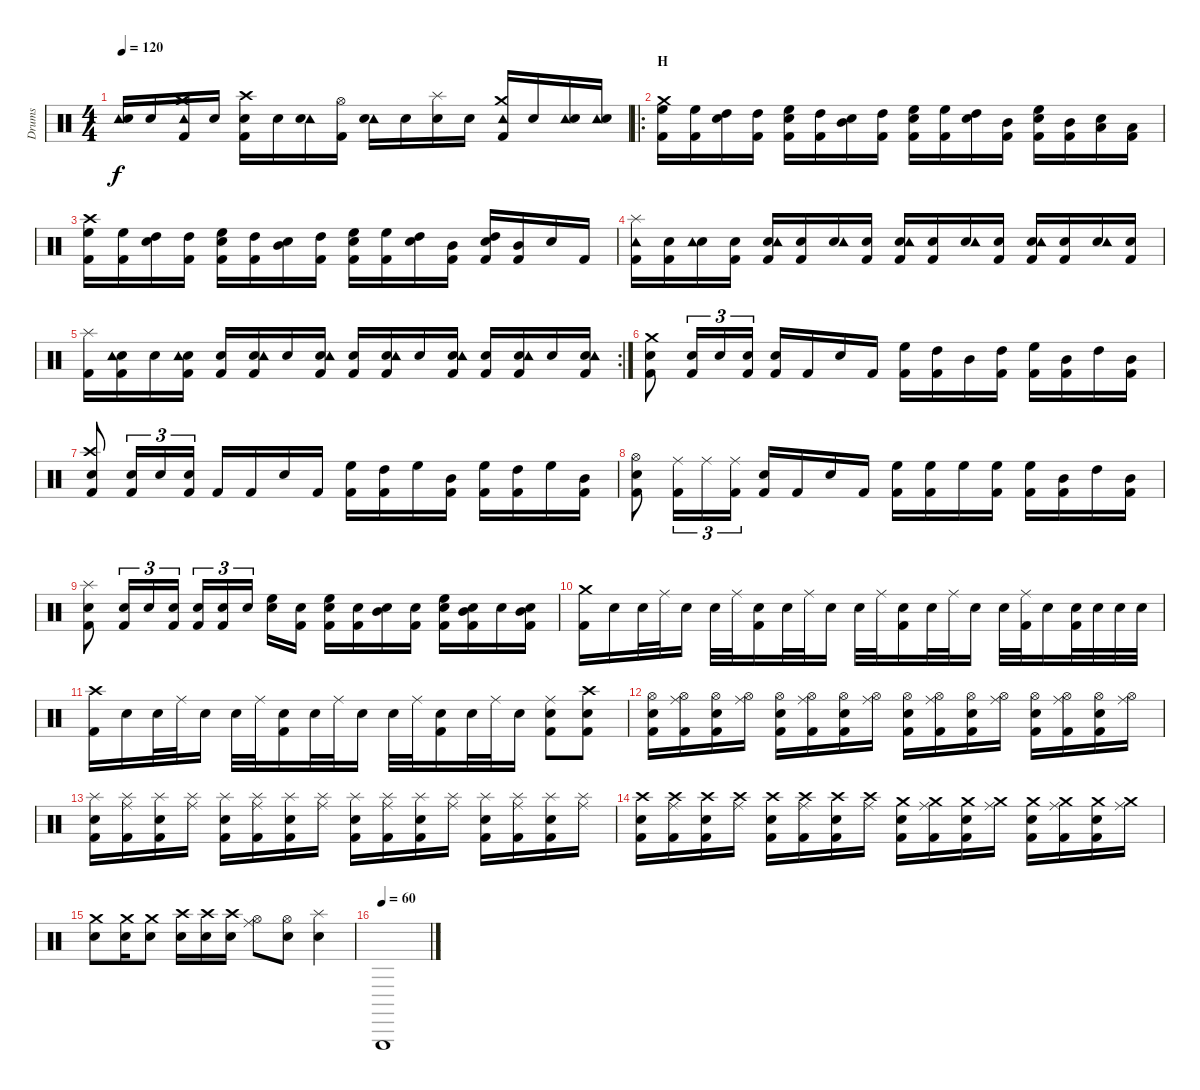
\track ("Drums" "Drums") {instrument percussion}
\staff {score}
\articulation defaults
\ts (4 4)
\tempo 120
\clef neutral
\ks c
("Tambourine (hit)" "Snare (hit) 2").16{dy f} "Snare (hit) 2".16 ("Crash medium (hit)" "Tambourine (hit)" "Kick (hit) 2").16 "Snare (hit) 2".16 ("Crash high (hit)" "Electric Snare (hit)" "Kick (hit) 2").16 "Snare (hit) 2".16 ("Tambourine (hit)" "Electric Snare (hit)").16 ("Hi-Hat (open)" "Kick (hit) 2").16 ("Tambourine (hit)" "Snare (hit) 2").16 "Electric Snare (hit)".16 ("Splash (hit)" "Snare (hit) 2").16 "Electric Snare (hit)".16 ("Crash medium (hit)" "Tambourine (hit)" "Kick (hit) 2").16 "Electric Snare (hit)".16 ("Tambourine (hit)" "Snare (hit) 2").16 ("Tambourine (hit)" "Electric Snare (hit)").16 |
\ro
\section ("" "H")
("Crash medium (hit)" "High Floor Tom (hit)" "Kick (hit) 2").16 ("High Floor Tom (hit)" "Kick (hit) 2").16 ("Snare (hit) 2" "High Tom (hit)").16 ("High Tom (hit)" "Kick (hit) 2").16 ("Snare (hit) 2" "High Floor Tom (hit)" "Kick (hit) 2").16 ("High Tom (hit)" "Kick (hit) 2").16 ("Snare (hit) 2" "Mid Tom (hit)").16 ("High Tom (hit)" "Kick (hit) 2").16 ("Snare (hit) 2" "High Floor Tom (hit)" "Kick (hit) 2").16 ("High Floor Tom (hit)" "Kick (hit) 2").16 ("Snare (hit) 2" "High Tom (hit)").16 ("Mid Tom (hit)" "Kick (hit) 2").16 ("Snare (hit) 2" "High Floor Tom (hit)" "Kick (hit) 2").16 ("Mid Tom (hit)" "Kick (hit) 2").16 ("Snare (hit) 2" "Low Tom (hit)").16 ("Low Floor Tom (hit)" "Kick (hit) 2").16 |
("Crash high (hit)" "High Floor Tom (hit)" "Kick (hit) 2").16 ("High Floor Tom (hit)" "Kick (hit) 2").16 ("Electric Snare (hit)" "High Tom (hit)").16 ("High Tom (hit)" "Kick (hit) 2").16 ("Electric Snare (hit)" "High Floor Tom (hit)" "Kick (hit) 2").16 ("High Tom (hit)" "Kick (hit) 2").16 ("Electric Snare (hit)" "Mid Tom (hit)").16 ("High Tom (hit)" "Kick (hit) 2").16 ("Electric Snare (hit)" "High Floor Tom (hit)" "Kick (hit) 2").16 ("High Floor Tom (hit)" "Kick (hit) 2").16 ("Electric Snare (hit)" "High Tom (hit)").16 ("Mid Tom (hit)" "Kick (hit) 2").16 ("Electric Snare (hit)" "High Tom (hit)" "Kick (hit) 2").16 ("Mid Tom (hit)" "Kick (hit) 2").16 "Electric Snare (hit)".16 "Kick (hit) 2".16 |
("Splash (hit)" "Tambourine (hit)" "Kick (hit) 2").16 ("Snare (hit) 2" "Kick (hit) 2").16 ("Snare (hit) 2" "Tambourine (hit)").16 ("Snare (hit) 2" "Kick (hit) 2").16 ("Snare (hit) 2" "Tambourine (hit)" "Kick (hit) 2").16 ("Snare (hit) 2" "Kick (hit) 2").16 ("Snare (hit) 2" "Tambourine (hit)").16 ("Snare (hit) 2" "Kick (hit) 2").16 ("Snare (hit) 2" "Tambourine (hit)" "Kick (hit) 2").16 ("Snare (hit) 2" "Kick (hit) 2").16 ("Snare (hit) 2" "Tambourine (hit)").16 ("Snare (hit) 2" "Kick (hit) 2").16 ("Snare (hit) 2" "Tambourine (hit)" "Kick (hit) 2").16 ("Snare (hit) 2" "Kick (hit) 2").16 ("Snare (hit) 2" "Tambourine (hit)").16 ("Snare (hit) 2" "Kick (hit) 2").16 |
\rc 2
("Splash (hit)" "Kick (hit) 2").16 ("Electric Snare (hit)" "Tambourine (hit)" "Kick (hit) 2").16 "Electric Snare (hit)".16 ("Electric Snare (hit)" "Tambourine (hit)" "Kick (hit) 2").16 ("Electric Snare (hit)" "Kick (hit) 2").16 ("Electric Snare (hit)" "Tambourine (hit)" "Kick (hit) 2").16 "Electric Snare (hit)".16 ("Electric Snare (hit)" "Tambourine (hit)" "Kick (hit) 2").16 ("Snare (hit) 2" "Kick (hit) 2").16 ("Snare (hit) 2" "Tambourine (hit)" "Kick (hit) 2").16 "Snare (hit) 2".16 ("Snare (hit) 2" "Tambourine (hit)" "Kick (hit) 2").16 ("Electric Snare (hit)" "Kick (hit) 2").16 ("Electric Snare (hit)" "Tambourine (hit)" "Kick (hit) 2").16 "Electric Snare (hit)".16 ("Electric Snare (hit)" "Tambourine (hit)" "Kick (hit) 2").16 |
("Crash medium (hit)" "Electric Snare (hit)" "Kick (hit) 2").8 ("Electric Snare (hit)" "Kick (hit) 2").16{tu (3 2)} "Electric Snare (hit)".16{tu (3 2)} ("Electric Snare (hit)" "Kick (hit) 2").16{tu (3 2)} ("Electric Snare (hit)" "Kick (hit) 2").16 "Kick (hit) 2".16 "Electric Snare (hit)".16 "Kick (hit) 2".16 ("High Floor Tom (hit)" "Kick (hit) 2").16 ("High Tom (hit)" "Kick (hit) 2").16 "Mid Tom (hit)".16 ("High Tom (hit)" "Kick (hit) 2").16 ("High Floor Tom (hit)" "Kick (hit) 2").16 ("Mid Tom (hit)" "Kick (hit) 2").16 "High Tom (hit)".16 ("Mid Tom (hit)" "Kick (hit) 2").16 |
("Crash high (hit)" "Electric Snare (hit)" "Kick (hit) 2").8 ("Electric Snare (hit)" "Kick (hit) 2").16{tu (3 2)} "Snare (hit) 2".16{tu (3 2)} ("Electric Snare (hit)" "Kick (hit) 2").16{tu (3 2)} "Kick (hit) 2".16 "Kick (hit) 2".16 "Electric Snare (hit)".16 "Kick (hit) 2".16 ("High Floor Tom (hit)" "Kick (hit) 2").16 ("High Tom (hit)" "Kick (hit) 2").16 "High Floor Tom (hit)".16 ("Mid Tom (hit)" "Kick (hit) 2").16 ("High Floor Tom (hit)" "Kick (hit) 2").16 ("High Tom (hit)" "Kick (hit) 2").16 "High Floor Tom (hit)".16 ("Mid Tom (hit)" "Kick (hit) 2").16 |
("Hi-Hat (open)" "Electric Snare (hit)" "Kick (hit) 2").8 ("Ride (middle)" "Kick (hit) 2").16{tu (3 2)} "Ride (middle)".16{tu (3 2)} ("Ride (middle)" "Kick (hit) 2").16{tu (3 2)} ("Electric Snare (hit)" "Kick (hit) 2").16 "Kick (hit) 2".16 "Electric Snare (hit)".16 "Kick (hit) 2".16 ("High Floor Tom (hit)" "Kick (hit) 2").16 ("High Floor Tom (hit)" "Kick (hit) 2").16 "High Floor Tom (hit)".16 ("High Floor Tom (hit)" "Kick (hit) 2").16 ("High Floor Tom (hit)" "Kick (hit) 2").16 ("Mid Tom (hit)" "Kick (hit) 2").16 "High Tom (hit)".16 ("Mid Tom (hit)" "Kick (hit) 2").16 |
("Splash (hit)" "Electric Snare (hit)" "Kick (hit) 2").8 ("Electric Snare (hit)" "Kick (hit) 2").16{tu (3 2)} "Snare (hit) 2".16{tu (3 2)} ("Electric Snare (hit)" "Kick (hit) 2").16{tu (3 2)} ("Snare (hit) 2" "Kick (hit) 2").16{tu (3 2)} ("Snare (hit) 2" "Kick (hit) 2").16{tu (3 2)} "Electric Snare (hit)".16{tu (3 2)} ("High Floor Tom (hit)" "Snare (hit) 2").16 ("Electric Snare (hit)" "Kick (hit) 2").16 ("High Floor Tom (hit)" "Snare (hit) 2" "Kick (hit) 2").16 ("Electric Snare (hit)" "Kick (hit) 2").16 ("Snare (hit) 2" "Mid Tom (hit)").16 ("Electric Snare (hit)" "Kick (hit) 2").16 ("High Floor Tom (hit)" "Snare (hit) 2" "Kick (hit) 2").16 ("Electric Snare (hit)" "Mid Tom (hit)" "Kick (hit) 2").16 "Snare (hit) 2".16 ("Electric Snare (hit)" "Mid Tom (hit)" "Kick (hit) 2").16 |
("Crash medium (hit)" "Kick (hit) 2").16 "Electric Snare (hit)".16 "Electric Snare (hit)".32 "Ride (middle)".32 "Electric Snare (hit)".16 "Electric Snare (hit)".32 "Ride (middle)".32 ("Electric Snare (hit)" "Kick (hit) 2").16 "Electric Snare (hit)".32 "Ride (middle)".32 "Electric Snare (hit)".16 "Electric Snare (hit)".32 "Ride (middle)".32 ("Electric Snare (hit)" "Kick (hit) 2").16 "Electric Snare (hit)".32 "Ride (middle)".32 "Electric Snare (hit)".16 "Electric Snare (hit)".32 ("Ride (middle)" "Kick (hit) 2").32 "Electric Snare (hit)".16 ("Electric Snare (hit)" "Kick (hit) 2").32 "Electric Snare (hit)".32 "Electric Snare (hit)".32 "Electric Snare (hit)".32 |
("Crash high (hit)" "Kick (hit) 2").16 "Electric Snare (hit)".16 "Electric Snare (hit)".32 "Ride (middle)".32 "Electric Snare (hit)".16 "Electric Snare (hit)".32 "Ride (middle)".32 ("Electric Snare (hit)" "Kick (hit) 2").16 "Electric Snare (hit)".32 "Ride (middle)".32 "Electric Snare (hit)".16 "Electric Snare (hit)".32 "Ride (middle)".32 ("Electric Snare (hit)" "Kick (hit) 2").16 "Electric Snare (hit)".32 "Ride (middle)".32 "Electric Snare (hit)".16 ("Ride (middle)" "Electric Snare (hit)" "Kick (hit) 2").8 ("Crash high (hit)" "Electric Snare (hit)" "Kick (hit) 2").8 |
("Hi-Hat (open)" "Electric Snare (hit)" "Kick (hit) 2").16 ("Hi-Hat (open)" "Ride (middle)" "Kick (hit) 2").16 ("Hi-Hat (open)" "Electric Snare (hit)" "Kick (hit) 2").16 ("Hi-Hat (open)" "Ride (middle)").16 ("Hi-Hat (open)" "Electric Snare (hit)" "Kick (hit) 2").16 ("Hi-Hat (open)" "Ride (middle)" "Kick (hit) 2").16 ("Hi-Hat (open)" "Electric Snare (hit)" "Kick (hit) 2").16 ("Hi-Hat (open)" "Ride (middle)").16 ("Hi-Hat (open)" "Electric Snare (hit)" "Kick (hit) 2").16 ("Hi-Hat (open)" "Ride (middle)" "Kick (hit) 2").16 ("Hi-Hat (open)" "Electric Snare (hit)" "Kick (hit) 2").16 ("Hi-Hat (open)" "Ride (middle)").16 ("Hi-Hat (open)" "Electric Snare (hit)" "Kick (hit) 2").16 ("Hi-Hat (open)" "Ride (middle)" "Kick (hit) 2").16 ("Hi-Hat (open)" "Electric Snare (hit)" "Kick (hit) 2").16 ("Hi-Hat (open)" "Ride (middle)").16 |
("Splash (hit)" "Electric Snare (hit)" "Kick (hit) 2").16 ("Splash (hit)" "Ride (middle)" "Kick (hit) 2").16 ("Splash (hit)" "Electric Snare (hit)" "Kick (hit) 2").16 ("Splash (hit)" "Ride (middle)").16 ("Splash (hit)" "Electric Snare (hit)" "Kick (hit) 2").16 ("Splash (hit)" "Ride (middle)" "Kick (hit) 2").16 ("Splash (hit)" "Electric Snare (hit)" "Kick (hit) 2").16 ("Splash (hit)" "Ride (middle)").16 ("Splash (hit)" "Electric Snare (hit)" "Kick (hit) 2").16 ("Splash (hit)" "Ride (middle)" "Kick (hit) 2").16 ("Splash (hit)" "Electric Snare (hit)" "Kick (hit) 2").16 ("Splash (hit)" "Ride (middle)").16 ("Splash (hit)" "Electric Snare (hit)" "Kick (hit) 2").16 ("Splash (hit)" "Ride (middle)" "Kick (hit) 2").16 ("Splash (hit)" "Electric Snare (hit)" "Kick (hit) 2").16 ("Splash (hit)" "Ride (middle)").16 |
("Crash high (hit)" "Electric Snare (hit)" "Kick (hit) 2").16 ("Crash high (hit)" "Ride (middle)" "Kick (hit) 2").16 ("Crash high (hit)" "Electric Snare (hit)" "Kick (hit) 2").16 ("Crash high (hit)" "Ride (middle)").16 ("Crash high (hit)" "Electric Snare (hit)" "Kick (hit) 2").16 ("Crash high (hit)" "Ride (middle)" "Kick (hit) 2").16 ("Crash high (hit)" "Electric Snare (hit)" "Kick (hit) 2").16 ("Crash high (hit)" "Ride (middle)").16 ("Crash medium (hit)" "Electric Snare (hit)" "Kick (hit) 2").16 ("Crash medium (hit)" "Ride (middle)" "Kick (hit) 2").16 ("Crash medium (hit)" "Electric Snare (hit)" "Kick (hit) 2").16 ("Crash medium (hit)" "Ride (middle)").16 ("Crash medium (hit)" "Electric Snare (hit)" "Kick (hit) 2").16 ("Crash medium (hit)" "Ride (middle)" "Kick (hit) 2").16 ("Crash medium (hit)" "Electric Snare (hit)" "Kick (hit) 2").16 ("Crash medium (hit)" "Ride (middle)").16 |
("Crash medium (hit)" "Electric Snare (hit)").8 ("Crash medium (hit)" "Snare (hit) 2").16 ("Crash medium (hit)" "Electric Snare (hit)").8 ("Crash high (hit)" "Electric Snare (hit)").16 ("Crash high (hit)" "Snare (hit) 2").16 ("Crash high (hit)" "Electric Snare (hit)").16 ("Hi-Hat (open)" "Ride (middle)").8 ("Hi-Hat (open)" "Electric Snare (hit)").8 ("Splash (hit)" "Electric Snare (hit)").4 |
\tempo (60)
"Triangle (hit)"{be (custom 0 12 20 12 40 0 60 0)}.1
